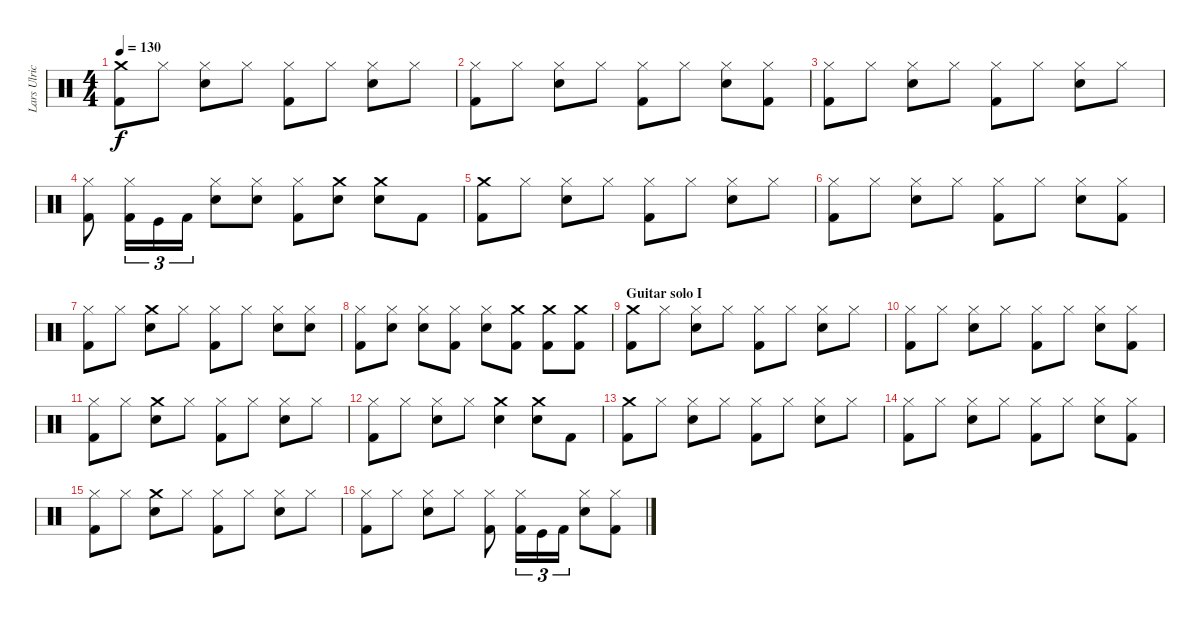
\track ("Lars Ulrich (Drums)" "Lars Ulric") {instrument percussion}
\staff {score}
\articulation defaults
\ts (4 4)
\tempo 130
\clef neutral
\ks c
("Crash medium (hit)" "Kick (hit) 2").8{dy f} "Hi-Hat (closed)".8 ("Snare (hit) 2" "Hi-Hat (closed)").8 "Hi-Hat (closed)".8 ("Hi-Hat (closed)" "Kick (hit) 2").8 "Hi-Hat (closed)".8 ("Snare (hit) 2" "Hi-Hat (closed)").8 "Hi-Hat (closed)".8 |
("Hi-Hat (closed)" "Kick (hit) 2").8 "Hi-Hat (closed)".8 ("Snare (hit) 2" "Hi-Hat (closed)").8 "Hi-Hat (closed)".8 ("Hi-Hat (closed)" "Kick (hit) 2").8 "Hi-Hat (closed)".8 ("Snare (hit) 2" "Hi-Hat (closed)").8 ("Hi-Hat (closed)" "Kick (hit) 2").8 |
("Hi-Hat (closed)" "Kick (hit) 2").8 "Hi-Hat (closed)".8 ("Snare (hit) 2" "Hi-Hat (closed)").8 "Hi-Hat (closed)".8 ("Hi-Hat (closed)" "Kick (hit) 2").8 "Hi-Hat (closed)".8 ("Snare (hit) 2" "Hi-Hat (closed)").8 "Hi-Hat (closed)".8 |
("Kick (hit) 2" "Hi-Hat (closed)").8 ("Kick (hit) 2" "Hi-Hat (closed)").16{tu (3 2)} "Kick (hit)".16{tu (3 2)} "Kick (hit) 2".16{tu (3 2)} ("Snare (hit) 2" "Hi-Hat (closed)").8 ("Snare (hit) 2" "Hi-Hat (closed)").8 ("Kick (hit) 2" "Hi-Hat (closed)").8 ("Crash medium (hit)" "Snare (hit) 2").8 ("Snare (hit) 2" "Crash medium (hit)").8 "Kick (hit) 2".8 |
("Crash medium (hit)" "Kick (hit) 2").8 "Hi-Hat (closed)".8 ("Snare (hit) 2" "Hi-Hat (closed)").8 "Hi-Hat (closed)".8 ("Hi-Hat (closed)" "Kick (hit) 2").8 "Hi-Hat (closed)".8 ("Snare (hit) 2" "Hi-Hat (closed)").8 "Hi-Hat (closed)".8 |
("Hi-Hat (closed)" "Kick (hit) 2").8 "Hi-Hat (closed)".8 ("Snare (hit) 2" "Hi-Hat (closed)").8 "Hi-Hat (closed)".8 ("Hi-Hat (closed)" "Kick (hit) 2").8 "Hi-Hat (closed)".8 ("Snare (hit) 2" "Hi-Hat (closed)").8 ("Hi-Hat (closed)" "Kick (hit) 2").8 |
("Hi-Hat (closed)" "Kick (hit) 2").8 "Hi-Hat (closed)".8 ("Crash medium (hit)" "Snare (hit) 2").8 "Hi-Hat (closed)".8 ("Hi-Hat (closed)" "Kick (hit) 2").8 "Hi-Hat (closed)".8 ("Snare (hit) 2" "Hi-Hat (closed)").8 ("Snare (hit) 2" "Hi-Hat (closed)").8 |
("Kick (hit) 2" "Hi-Hat (closed)").8 ("Snare (hit) 2" "Hi-Hat (closed)").8 ("Snare (hit) 2" "Hi-Hat (closed)").8 ("Hi-Hat (closed)" "Kick (hit) 2").8 ("Snare (hit) 2" "Hi-Hat (closed)").8 ("Crash medium (hit)" "Kick (hit) 2").8 ("Crash medium (hit)" "Kick (hit) 2").8 ("Crash medium (hit)" "Kick (hit) 2").8 |
\section ("" "Guitar solo I")
("Crash medium (hit)" "Kick (hit) 2").8 "Hi-Hat (closed)".8 ("Snare (hit) 2" "Hi-Hat (closed)").8 "Hi-Hat (closed)".8 ("Hi-Hat (closed)" "Kick (hit) 2").8 "Hi-Hat (closed)".8 ("Snare (hit) 2" "Hi-Hat (closed)").8 "Hi-Hat (closed)".8 |
("Hi-Hat (closed)" "Kick (hit) 2").8 "Hi-Hat (closed)".8 ("Snare (hit) 2" "Hi-Hat (closed)").8 "Hi-Hat (closed)".8 ("Hi-Hat (closed)" "Kick (hit) 2").8 "Hi-Hat (closed)".8 ("Snare (hit) 2" "Hi-Hat (closed)").8 ("Hi-Hat (closed)" "Kick (hit) 2").8 |
("Hi-Hat (closed)" "Kick (hit) 2").8 "Hi-Hat (closed)".8 ("Crash medium (hit)" "Snare (hit) 2").8 "Hi-Hat (closed)".8 ("Hi-Hat (closed)" "Kick (hit) 2").8 "Hi-Hat (closed)".8 ("Snare (hit) 2" "Hi-Hat (closed)").8 "Hi-Hat (closed)".8 |
("Hi-Hat (closed)" "Kick (hit) 2").8 "Hi-Hat (closed)".8 ("Hi-Hat (closed)" "Snare (hit) 2").8 "Hi-Hat (closed)".8 ("Crash medium (hit)" "Snare (hit) 2").4 ("Crash medium (hit)" "Snare (hit) 2").8 "Kick (hit) 2".8 |
("Crash medium (hit)" "Kick (hit) 2").8 "Hi-Hat (closed)".8 ("Snare (hit) 2" "Hi-Hat (closed)").8 "Hi-Hat (closed)".8 ("Hi-Hat (closed)" "Kick (hit) 2").8 "Hi-Hat (closed)".8 ("Snare (hit) 2" "Hi-Hat (closed)").8 "Hi-Hat (closed)".8 |
("Hi-Hat (closed)" "Kick (hit) 2").8 "Hi-Hat (closed)".8 ("Snare (hit) 2" "Hi-Hat (closed)").8 "Hi-Hat (closed)".8 ("Hi-Hat (closed)" "Kick (hit) 2").8 "Hi-Hat (closed)".8 ("Snare (hit) 2" "Hi-Hat (closed)").8 ("Hi-Hat (closed)" "Kick (hit) 2").8 |
("Hi-Hat (closed)" "Kick (hit) 2").8 "Hi-Hat (closed)".8 ("Crash medium (hit)" "Snare (hit) 2").8 "Hi-Hat (closed)".8 ("Hi-Hat (closed)" "Kick (hit) 2").8 "Hi-Hat (closed)".8 ("Snare (hit) 2" "Hi-Hat (closed)").8 "Hi-Hat (closed)".8 |
("Kick (hit) 2" "Hi-Hat (closed)").8 "Hi-Hat (closed)".8 ("Hi-Hat (closed)" "Snare (hit) 2").8 "Hi-Hat (closed)".8 ("Kick (hit) 2" "Hi-Hat (closed)").8 ("Kick (hit) 2" "Hi-Hat (closed)").16{tu (3 2)} "Kick (hit)".16{tu (3 2)} "Kick (hit) 2".16{tu (3 2)} ("Snare (hit) 2" "Hi-Hat (closed)").8 ("Kick (hit) 2" "Hi-Hat (closed)").8
